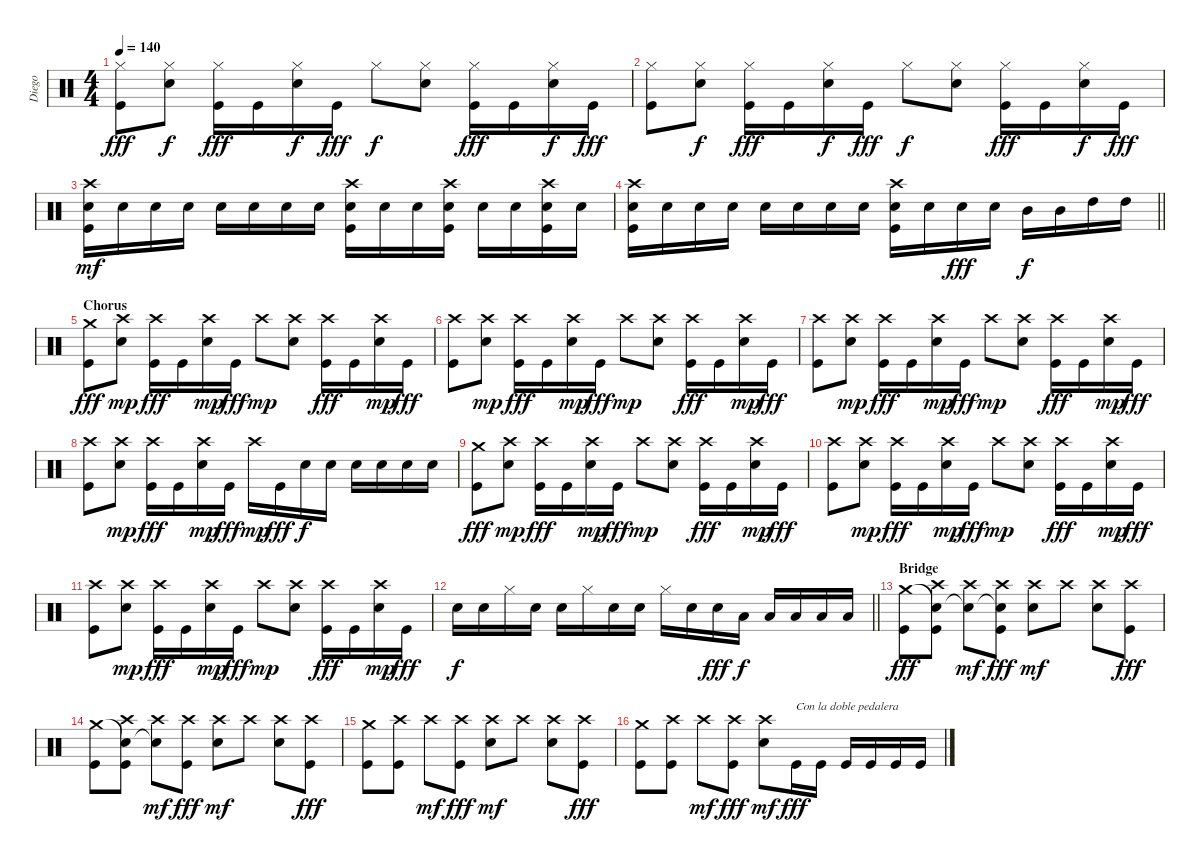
\track ("Diego" "Diego") {instrument percussion}
\staff {score}
\articulation defaults
\ts (4 4)
\tempo 140
\clef neutral
\ks c
("Hi-Hat (closed)" "Kick (hit)").8{dy fff} ("Hi-Hat (closed)" "Snare (hit) 2").8{dy f} ("Hi-Hat (closed)" "Kick (hit)").16{dy fff} "Kick (hit)".16 ("Hi-Hat (closed)" "Snare (hit) 2").16{dy f} "Kick (hit)".16{dy fff} "Hi-Hat (closed)".8{dy f} ("Hi-Hat (closed)" "Snare (hit) 2").8 ("Hi-Hat (closed)" "Kick (hit)").16{dy fff} "Kick (hit)".16 ("Hi-Hat (closed)" "Snare (hit) 2").16{dy f} "Kick (hit)".16{dy fff} |
("Hi-Hat (closed)" "Kick (hit)").8 ("Hi-Hat (closed)" "Snare (hit) 2").8{dy f} ("Hi-Hat (closed)" "Kick (hit)").16{dy fff} "Kick (hit)".16 ("Hi-Hat (closed)" "Snare (hit) 2").16{dy f} "Kick (hit)".16{dy fff} "Hi-Hat (closed)".8{dy f} ("Hi-Hat (closed)" "Snare (hit) 2").8 ("Hi-Hat (closed)" "Kick (hit)").16{dy fff} "Kick (hit)".16 ("Hi-Hat (closed)" "Snare (hit) 2").16{dy f} "Kick (hit)".16{dy fff} |
("Crash high (hit)" "Snare (hit) 2" "Kick (hit)").16{dy mf} "Snare (hit) 2".16 "Snare (hit) 2".16 "Snare (hit) 2".16 "Snare (hit) 2".16 "Snare (hit) 2".16 "Snare (hit) 2".16 "Snare (hit) 2".16 ("Crash high (hit)" "Snare (hit) 2" "Kick (hit)").16 "Snare (hit) 2".16 "Snare (hit) 2".16 ("Crash high (hit)" "Snare (hit) 2" "Kick (hit)").16 "Snare (hit) 2".16 "Snare (hit) 2".16 ("Crash high (hit)" "Snare (hit) 2" "Kick (hit)").16 "Snare (hit) 2".16 |
\barLineRight lightlight
("Crash high (hit)" "Snare (hit) 2" "Kick (hit)").16 "Snare (hit) 2".16 "Snare (hit) 2".16 "Snare (hit) 2".16 "Snare (hit) 2".16 "Snare (hit) 2".16 "Snare (hit) 2".16 "Snare (hit) 2".16 ("Crash high (hit)" "Snare (hit) 2" "Kick (hit)").16 "Snare (hit) 2".16 "Snare (hit) 2".16{dy fff} "Snare (hit) 2".16 "Mid Tom (hit)".16{dy f} "Mid Tom (hit)".16 "High Tom (hit)".16 "High Tom (hit)".16 |
\section ("" "Chorus")
("Crash medium (hit)" "Kick (hit)").8{dy fff} ("Crash high (hit)" "Snare (hit) 2").8{dy mp} ("Crash high (hit)" "Kick (hit)").16{dy fff} "Kick (hit)".16 ("Crash high (hit)" "Snare (hit) 2").16{dy mp} "Kick (hit)".16{dy fff} "Crash high (hit)".8{dy mp} ("Crash high (hit)" "Snare (hit) 2").8 ("Crash high (hit)" "Kick (hit)").16{dy fff} "Kick (hit)".16 ("Crash high (hit)" "Snare (hit) 2").16{dy mp} "Kick (hit)".16{dy fff} |
("Crash high (hit)" "Kick (hit)").8 ("Crash high (hit)" "Snare (hit) 2").8{dy mp} ("Crash high (hit)" "Kick (hit)").16{dy fff} "Kick (hit)".16 ("Crash high (hit)" "Snare (hit) 2").16{dy mp} "Kick (hit)".16{dy fff} "Crash high (hit)".8{dy mp} ("Crash high (hit)" "Snare (hit) 2").8 ("Crash high (hit)" "Kick (hit)").16{dy fff} "Kick (hit)".16 ("Crash high (hit)" "Snare (hit) 2").16{dy mp} "Kick (hit)".16{dy fff} |
("Crash high (hit)" "Kick (hit)").8 ("Crash high (hit)" "Snare (hit) 2").8{dy mp} ("Crash high (hit)" "Kick (hit)").16{dy fff} "Kick (hit)".16 ("Crash high (hit)" "Snare (hit) 2").16{dy mp} "Kick (hit)".16{dy fff} "Crash high (hit)".8{dy mp} ("Crash high (hit)" "Snare (hit) 2").8 ("Crash high (hit)" "Kick (hit)").16{dy fff} "Kick (hit)".16 ("Crash high (hit)" "Snare (hit) 2").16{dy mp} "Kick (hit)".16{dy fff} |
("Crash high (hit)" "Kick (hit)").8 ("Crash high (hit)" "Snare (hit) 2").8{dy mp} ("Crash high (hit)" "Kick (hit)").16{dy fff} "Kick (hit)".16 ("Crash high (hit)" "Snare (hit) 2").16{dy mp} "Kick (hit)".16{dy fff} "Crash high (hit)".16{dy mp} "Kick (hit)".16{dy fff} "Snare (hit) 2".16{dy f} "Snare (hit) 2".16 "Snare (hit) 2".16 "Snare (hit) 2".16 "Snare (hit) 2".16 "Snare (hit) 2".16 |
("Crash medium (hit)" "Kick (hit)").8{dy fff} ("Crash high (hit)" "Snare (hit) 2").8{dy mp} ("Crash high (hit)" "Kick (hit)").16{dy fff} "Kick (hit)".16 ("Crash high (hit)" "Snare (hit) 2").16{dy mp} "Kick (hit)".16{dy fff} "Crash high (hit)".8{dy mp} ("Crash high (hit)" "Snare (hit) 2").8 ("Crash high (hit)" "Kick (hit)").16{dy fff} "Kick (hit)".16 ("Crash high (hit)" "Snare (hit) 2").16{dy mp} "Kick (hit)".16{dy fff} |
("Crash high (hit)" "Kick (hit)").8 ("Crash high (hit)" "Snare (hit) 2").8{dy mp} ("Crash high (hit)" "Kick (hit)").16{dy fff} "Kick (hit)".16 ("Crash high (hit)" "Snare (hit) 2").16{dy mp} "Kick (hit)".16{dy fff} "Crash high (hit)".8{dy mp} ("Crash high (hit)" "Snare (hit) 2").8 ("Crash high (hit)" "Kick (hit)").16{dy fff} "Kick (hit)".16 ("Crash high (hit)" "Snare (hit) 2").16{dy mp} "Kick (hit)".16{dy fff} |
("Crash high (hit)" "Kick (hit)").8 ("Crash high (hit)" "Snare (hit) 2").8{dy mp} ("Crash high (hit)" "Kick (hit)").16{dy fff} "Kick (hit)".16 ("Crash high (hit)" "Snare (hit) 2").16{dy mp} "Kick (hit)".16{dy fff} "Crash high (hit)".8{dy mp} ("Crash high (hit)" "Snare (hit) 2").8 ("Crash high (hit)" "Kick (hit)").16{dy fff} "Kick (hit)".16 ("Crash high (hit)" "Snare (hit) 2").16{dy mp} "Kick (hit)".16{dy fff} |
\barLineRight lightlight "Snare (hit) 2".16{dy f} "Snare (hit) 2".16 "Hi-Hat (closed)".16 "Snare (hit) 2".16 "Snare (hit) 2".16 "Hi-Hat (closed)".16 "Snare (hit) 2".16 "Snare (hit) 2".16 "Hi-Hat (closed)".16 "Snare (hit) 2".16 "Snare (hit) 2".16{dy fff} "Low Tom (hit)".16{dy f} "Low Tom (hit)".16 "Low Floor Tom (hit)".16 "Low Floor Tom (hit)".16 "Low Floor Tom (hit)".16
|
\section ("" "Bridge")
("Crash medium (hit)" "Kick (hit)").8{dy fff} ("Snare (hit)"{t} "Crash high (hit)" "Kick (hit)").8 ("Snare (hit)"{t} "Crash high (hit)").8{dy mf} ("Snare (hit)"{t} "Crash high (hit)" "Kick (hit)").8{dy fff} ("Crash high (hit)" "Snare (hit) 2").8{dy mf} "Crash high (hit)".8 ("Crash high (hit)" "Snare (hit) 2").8 ("Crash high (hit)" "Kick (hit)").8{dy fff} |
("Crash medium (hit)" "Kick (hit)").8 ("Snare (hit)"{t} "Crash high (hit)" "Kick (hit)").8 ("Snare (hit)"{t} "Crash high (hit)").8{dy mf} ("Crash high (hit)" "Kick (hit)").8{dy fff} ("Crash high (hit)" "Snare (hit) 2").8{dy mf} "Crash high (hit)".8 ("Crash high (hit)" "Snare (hit) 2").8 ("Crash high (hit)" "Kick (hit)").8{dy fff} |
("Crash medium (hit)" "Kick (hit)").8 ("Crash high (hit)" "Kick (hit)").8 "Crash high (hit)".8{dy mf} ("Crash high (hit)" "Kick (hit)").8{dy fff} ("Crash high (hit)" "Snare (hit) 2").8{dy mf} "Crash high (hit)".8 ("Crash high (hit)" "Snare (hit) 2").8 ("Crash high (hit)" "Kick (hit)").8{dy fff} |
("Crash medium (hit)" "Kick (hit)").8 ("Crash high (hit)" "Kick (hit)").8 "Crash high (hit)".8{dy mf} ("Crash high (hit)" "Kick (hit)").8{dy fff} ("Crash high (hit)" "Snare (hit) 2").8{dy mf} "Kick (hit)".16{txt "Con la doble pedalera" dy fff} "Kick (hit)".16 "Kick (hit)".16 "Kick (hit)".16 "Kick (hit)".16 "Kick (hit)".16
